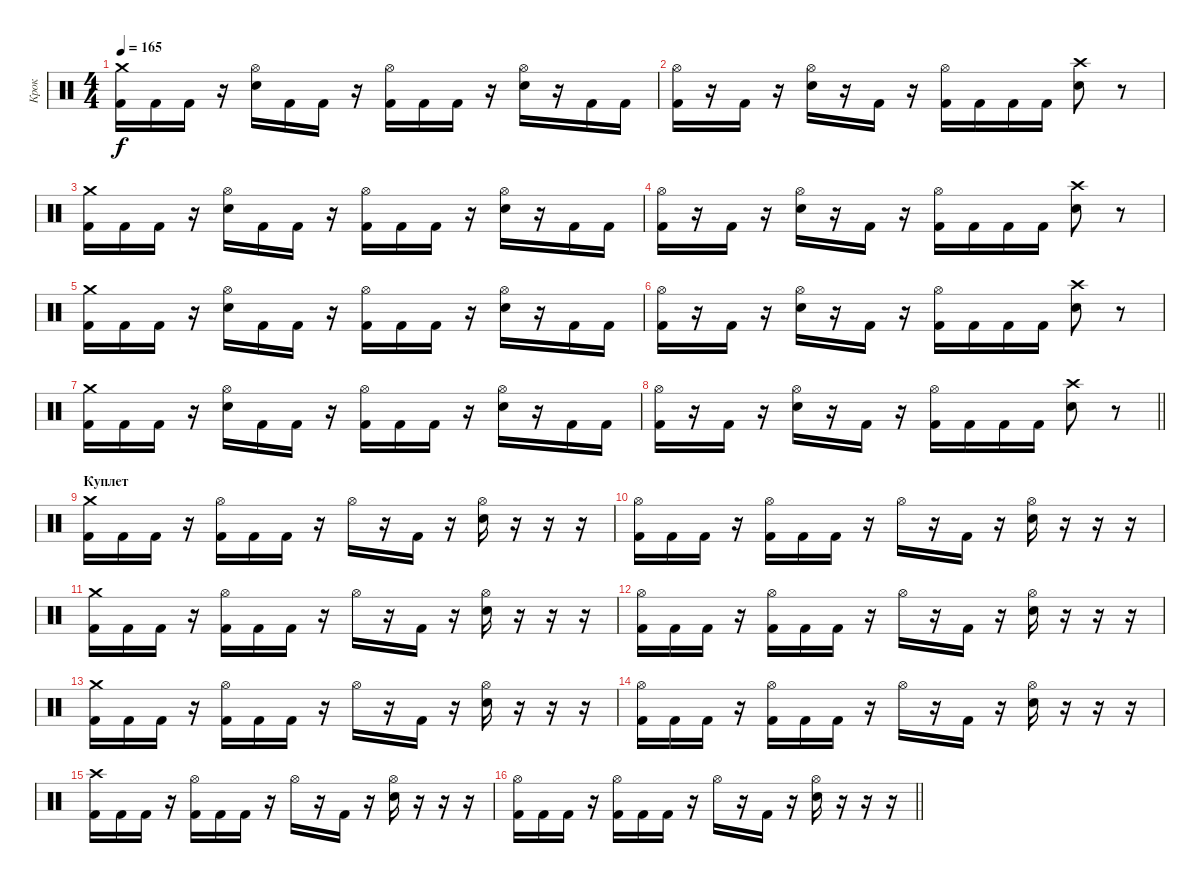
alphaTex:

\track ("Крок" "Крок") {instrument percussion}
\staff {score}
\articulation defaults
\ts (4 4)
\tempo 165
\clef neutral
\ks c
("Kick (hit) 2" "Crash medium (hit)").16{dy f} "Kick (hit) 2".16 "Kick (hit) 2".16 r.16 ("Electric Snare (hit)" "Hi-Hat (open)").16 "Kick (hit) 2".16 "Kick (hit) 2".16 r.16 ("Kick (hit) 2" "Hi-Hat (open)").16 "Kick (hit) 2".16 "Kick (hit) 2".16 r.16 ("Electric Snare (hit)" "Hi-Hat (open)").16 r.16 "Kick (hit) 2".16 "Kick (hit) 2".16 |
("Kick (hit) 2" "Hi-Hat (open)").16 r.16 "Kick (hit) 2".16 r.16 ("Electric Snare (hit)" "Hi-Hat (open)").16 r.16 "Kick (hit) 2".16 r.16 ("Kick (hit) 2" "Hi-Hat (open)").16 "Kick (hit) 2".16 "Kick (hit) 2".16 "Kick (hit) 2".16 ("Electric Snare (hit)" "Crash high (hit)").8 r.8 |
("Kick (hit) 2" "Crash medium (hit)").16 "Kick (hit) 2".16 "Kick (hit) 2".16 r.16 ("Electric Snare (hit)" "Hi-Hat (open)").16 "Kick (hit) 2".16 "Kick (hit) 2".16 r.16 ("Kick (hit) 2" "Hi-Hat (open)").16 "Kick (hit) 2".16 "Kick (hit) 2".16 r.16 ("Electric Snare (hit)" "Hi-Hat (open)").16 r.16 "Kick (hit) 2".16 "Kick (hit) 2".16 |
("Kick (hit) 2" "Hi-Hat (open)").16 r.16 "Kick (hit) 2".16 r.16 ("Electric Snare (hit)" "Hi-Hat (open)").16 r.16 "Kick (hit) 2".16 r.16 ("Kick (hit) 2" "Hi-Hat (open)").16 "Kick (hit) 2".16 "Kick (hit) 2".16 "Kick (hit) 2".16 ("Electric Snare (hit)" "Crash high (hit)").8 r.8 |
("Kick (hit) 2" "Crash medium (hit)").16 "Kick (hit) 2".16 "Kick (hit) 2".16 r.16 ("Electric Snare (hit)" "Hi-Hat (open)").16 "Kick (hit) 2".16 "Kick (hit) 2".16 r.16 ("Kick (hit) 2" "Hi-Hat (open)").16 "Kick (hit) 2".16 "Kick (hit) 2".16 r.16 ("Electric Snare (hit)" "Hi-Hat (open)").16 r.16 "Kick (hit) 2".16 "Kick (hit) 2".16 |
("Kick (hit) 2" "Hi-Hat (open)").16 r.16 "Kick (hit) 2".16 r.16 ("Electric Snare (hit)" "Hi-Hat (open)").16 r.16 "Kick (hit) 2".16 r.16 ("Kick (hit) 2" "Hi-Hat (open)").16 "Kick (hit) 2".16 "Kick (hit) 2".16 "Kick (hit) 2".16 ("Electric Snare (hit)" "Crash high (hit)").8 r.8 |
("Kick (hit) 2" "Crash medium (hit)").16 "Kick (hit) 2".16 "Kick (hit) 2".16 r.16 ("Electric Snare (hit)" "Hi-Hat (open)").16 "Kick (hit) 2".16 "Kick (hit) 2".16 r.16 ("Kick (hit) 2" "Hi-Hat (open)").16 "Kick (hit) 2".16 "Kick (hit) 2".16 r.16 ("Electric Snare (hit)" "Hi-Hat (open)").16 r.16 "Kick (hit) 2".16 "Kick (hit) 2".16 |
\barLineRight lightlight
("Kick (hit) 2" "Hi-Hat (open)").16 r.16 "Kick (hit) 2".16 r.16 ("Electric Snare (hit)" "Hi-Hat (open)").16 r.16 "Kick (hit) 2".16 r.16 ("Kick (hit) 2" "Hi-Hat (open)").16 "Kick (hit) 2".16 "Kick (hit) 2".16 "Kick (hit) 2".16 ("Electric Snare (hit)" "Crash high (hit)").8 r.8 |
\section ("" "Куплет")
("Kick (hit) 2" "Crash medium (hit)").16 "Kick (hit) 2".16 "Kick (hit) 2".16 r.16 ("Kick (hit) 2" "Hi-Hat (open)").16 "Kick (hit) 2".16 "Kick (hit) 2".16 r.16 "Hi-Hat (open)".16 r.16 "Kick (hit) 2".16 r.16 ("Electric Snare (hit)" "Hi-Hat (open)").16 r.16 r.16 r.16 |
("Kick (hit) 2" "Hi-Hat (open)").16 "Kick (hit) 2".16 "Kick (hit) 2".16 r.16 ("Kick (hit) 2" "Hi-Hat (open)").16 "Kick (hit) 2".16 "Kick (hit) 2".16 r.16 "Hi-Hat (open)".16 r.16 "Kick (hit) 2".16 r.16 ("Electric Snare (hit)" "Hi-Hat (open)").16 r.16 r.16 r.16 |
("Kick (hit) 2" "Crash medium (hit)").16 "Kick (hit) 2".16 "Kick (hit) 2".16 r.16 ("Kick (hit) 2" "Hi-Hat (open)").16 "Kick (hit) 2".16 "Kick (hit) 2".16 r.16 "Hi-Hat (open)".16 r.16 "Kick (hit) 2".16 r.16 ("Electric Snare (hit)" "Hi-Hat (open)").16 r.16 r.16 r.16 |
("Kick (hit) 2" "Hi-Hat (open)").16 "Kick (hit) 2".16 "Kick (hit) 2".16 r.16 ("Kick (hit) 2" "Hi-Hat (open)").16 "Kick (hit) 2".16 "Kick (hit) 2".16 r.16 "Hi-Hat (open)".16 r.16 "Kick (hit) 2".16 r.16 ("Electric Snare (hit)" "Hi-Hat (open)").16 r.16 r.16 r.16 |
("Kick (hit) 2" "Crash medium (hit)").16 "Kick (hit) 2".16 "Kick (hit) 2".16 r.16 ("Kick (hit) 2" "Hi-Hat (open)").16 "Kick (hit) 2".16 "Kick (hit) 2".16 r.16 "Hi-Hat (open)".16 r.16 "Kick (hit) 2".16 r.16 ("Electric Snare (hit)" "Hi-Hat (open)").16 r.16 r.16 r.16 |
("Kick (hit) 2" "Hi-Hat (open)").16 "Kick (hit) 2".16 "Kick (hit) 2".16 r.16 ("Kick (hit) 2" "Hi-Hat (open)").16 "Kick (hit) 2".16 "Kick (hit) 2".16 r.16 "Hi-Hat (open)".16 r.16 "Kick (hit) 2".16 r.16 ("Electric Snare (hit)" "Hi-Hat (open)").16 r.16 r.16 r.16 |
("Kick (hit) 2" "Crash high (hit)").16 "Kick (hit) 2".16 "Kick (hit) 2".16 r.16 ("Kick (hit) 2" "Hi-Hat (open)").16 "Kick (hit) 2".16 "Kick (hit) 2".16 r.16 "Hi-Hat (open)".16 r.16 "Kick (hit) 2".16 r.16 ("Electric Snare (hit)" "Hi-Hat (open)").16 r.16 r.16 r.16 |
\barLineRight lightlight
("Kick (hit) 2" "Hi-Hat (open)").16 "Kick (hit) 2".16 "Kick (hit) 2".16 r.16 ("Kick (hit) 2" "Hi-Hat (open)").16 "Kick (hit) 2".16 "Kick (hit) 2".16 r.16 "Hi-Hat (open)".16 r.16 "Kick (hit) 2".16 r.16 ("Electric Snare (hit)" "Hi-Hat (open)").16 r.16 r.16 r.16
